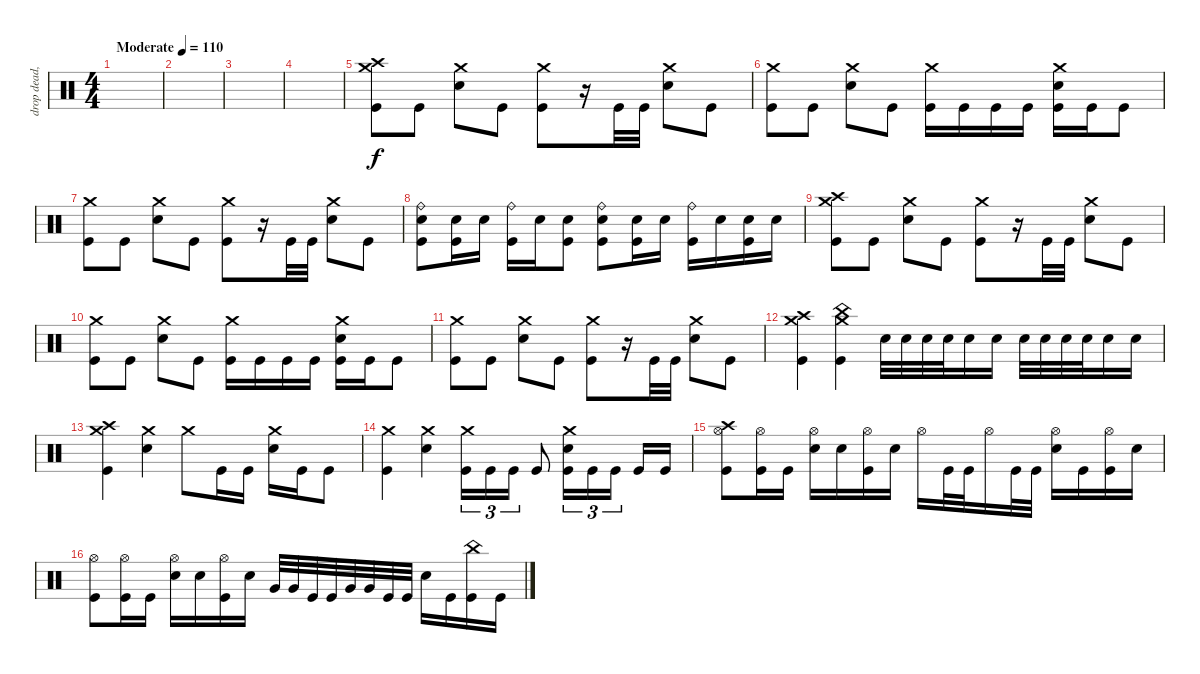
\track ("drop dead, johnny" "drop dead,") {instrument percussion}
\staff {score}
\articulation defaults
\ts (4 4)
\tempo (110 "Moderate")
\clef neutral
\ks c
|
|
|
|
("Crash high (hit)" "Crash medium (hit)" "Kick (hit)").8 "Kick (hit)".8 ("Crash medium (hit)" "Electric Snare (hit)").8 "Kick (hit)".8 ("Crash medium (hit)" "Kick (hit)").8 r.16 "Kick (hit)".32 "Kick (hit)".32 ("Crash medium (hit)" "Electric Snare (hit)").8 "Kick (hit)".8 |
("Crash medium (hit)" "Kick (hit)").8 "Kick (hit)".8 ("Crash medium (hit)" "Electric Snare (hit)").8 "Kick (hit)".8 ("Crash medium (hit)" "Kick (hit)").16 "Kick (hit)".16 "Kick (hit)".16 "Kick (hit)".16 ("Crash medium (hit)" "Electric Snare (hit)" "Kick (hit)").16 "Kick (hit)".16 "Kick (hit)".8 |
("Crash medium (hit)" "Kick (hit)").8 "Kick (hit)".8 ("Crash medium (hit)" "Electric Snare (hit)").8 "Kick (hit)".8 ("Crash medium (hit)" "Kick (hit)").8 r.16 "Kick (hit)".32 "Kick (hit)".32 ("Crash medium (hit)" "Electric Snare (hit)").8 "Kick (hit)".8 |
("Ride (bell)" "Electric Snare (hit)" "Kick (hit)").8 ("Electric Snare (hit)" "Kick (hit)").16 "Electric Snare (hit)".16 ("Ride (bell)" "Kick (hit)").16 "Electric Snare (hit)".16 ("Electric Snare (hit)" "Kick (hit)").8 ("Ride (bell)" "Electric Snare (hit)" "Kick (hit)").8 ("Electric Snare (hit)" "Kick (hit)").16 "Electric Snare (hit)".16 ("Ride (bell)" "Kick (hit)").16 "Electric Snare (hit)".16 ("Electric Snare (hit)" "Kick (hit)").16 "Electric Snare (hit)".16 |
("Crash high (hit)" "Crash medium (hit)" "Kick (hit)").8 "Kick (hit)".8 ("Crash medium (hit)" "Electric Snare (hit)").8 "Kick (hit)".8 ("Crash medium (hit)" "Kick (hit)").8 r.16 "Kick (hit)".32 "Kick (hit)".32 ("Crash medium (hit)" "Electric Snare (hit)").8 "Kick (hit)".8 |
("Crash medium (hit)" "Kick (hit)").8 "Kick (hit)".8 ("Crash medium (hit)" "Electric Snare (hit)").8 "Kick (hit)".8 ("Crash medium (hit)" "Kick (hit)").16 "Kick (hit)".16 "Kick (hit)".16 "Kick (hit)".16 ("Crash medium (hit)" "Electric Snare (hit)" "Kick (hit)").16 "Kick (hit)".16 "Kick (hit)".8 |
("Crash medium (hit)" "Kick (hit)").8 "Kick (hit)".8 ("Crash medium (hit)" "Electric Snare (hit)").8 "Kick (hit)".8 ("Crash medium (hit)" "Kick (hit)").8 r.16 "Kick (hit)".32 "Kick (hit)".32 ("Crash medium (hit)" "Electric Snare (hit)").8 "Kick (hit)".8 |
("Crash high (hit)" "Crash medium (hit)" "Kick (hit)").4 ("China (hit)" "Crash medium (hit)" "Kick (hit)").4 "Electric Snare (hit)".32 "Electric Snare (hit)".32 "Electric Snare (hit)".32 "Electric Snare (hit)".32 "Electric Snare (hit)".16 "Electric Snare (hit)".16 "Electric Snare (hit)".32 "Electric Snare (hit)".32 "Electric Snare (hit)".32 "Electric Snare (hit)".32 "Electric Snare (hit)".16 "Electric Snare (hit)".16 |
("Crash high (hit)" "Crash medium (hit)" "Kick (hit)").4 ("Crash medium (hit)" "Electric Snare (hit)").4 "Crash medium (hit)".8 "Kick (hit)".16 "Kick (hit)".16 ("Crash medium (hit)" "Electric Snare (hit)").16 "Kick (hit)".16 "Kick (hit)".8 |
("Crash medium (hit)" "Kick (hit)").4 ("Crash medium (hit)" "Electric Snare (hit)").4 ("Crash medium (hit)" "Kick (hit)").16{tu (3 2)} "Kick (hit)".16{tu (3 2)} "Kick (hit)".16{tu (3 2)} "Kick (hit)".8 ("Crash medium (hit)" "Electric Snare (hit)" "Kick (hit)").16{tu (3 2)} "Kick (hit)".16{tu (3 2)} "Kick (hit)".16{tu (3 2) beam splitsecondary} "Kick (hit)".16 "Kick (hit)".16 |
("Crash high (hit)" "Hi-Hat (open)" "Kick (hit)").8 ("Hi-Hat (open)" "Kick (hit)").16 "Kick (hit)".16 ("Hi-Hat (open)" "Electric Snare (hit)").16 "Electric Snare (hit)".16 ("Hi-Hat (open)" "Kick (hit)").16 "Electric Snare (hit)".16 "Hi-Hat (open)".16 "Kick (hit)".32 "Kick (hit)".32 "Hi-Hat (open)".16 "Kick (hit)".32 "Kick (hit)".32 ("Hi-Hat (open)" "Electric Snare (hit)").16 "Kick (hit)".16 ("Hi-Hat (open)" "Kick (hit)").16 "Electric Snare (hit)".16 |
("Hi-Hat (open)" "Kick (hit)").8 ("Hi-Hat (open)" "Kick (hit)").16 "Kick (hit)".16 ("Hi-Hat (open)" "Electric Snare (hit)").16 "Electric Snare (hit)".16 ("Hi-Hat (open)" "Kick (hit)").16 "Electric Snare (hit)".16 "Very Low Tom (hit)".32 "Very Low Tom (hit)".32 "Kick (hit)".32 "Kick (hit)".32 "Very Low Tom (hit)".32 "Very Low Tom (hit)".32 "Kick (hit)".32 "Kick (hit)".32 "Electric Snare (hit)".16 "Kick (hit)".16 ("China (hit)" "Kick (hit)").16 "Kick (hit)".16
